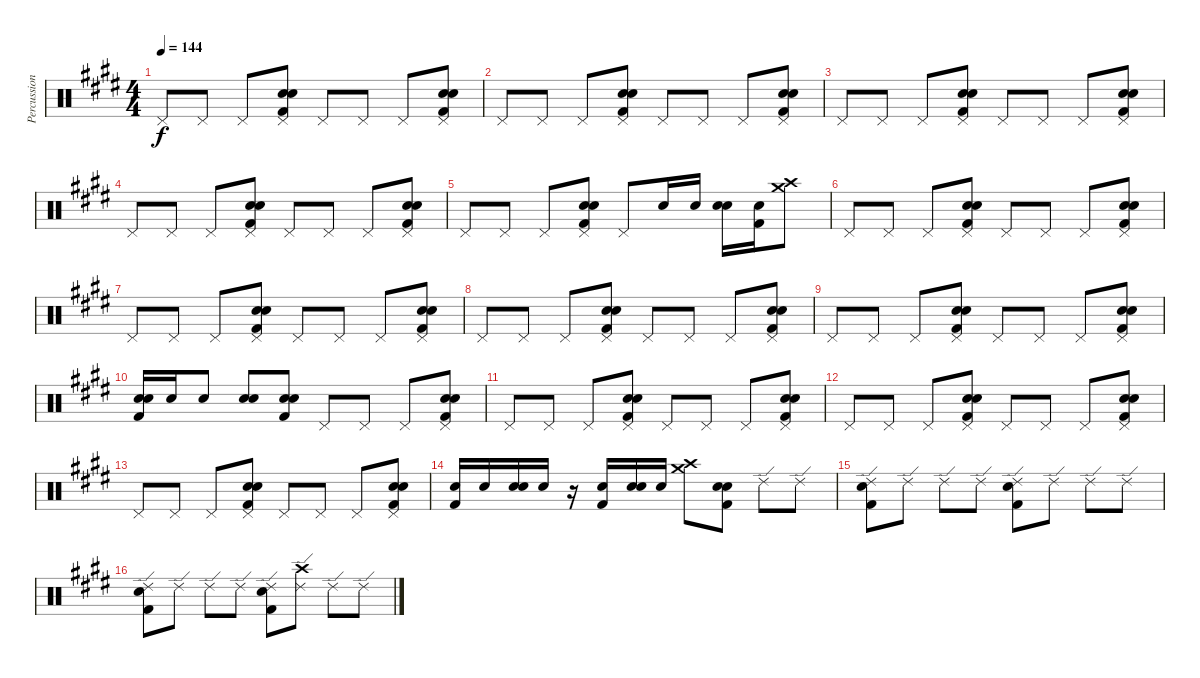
\track ("Percussion" "Percussion") {instrument percussion}
\staff {score}
\articulation defaults
\ts (4 4)
\tempo 144
\clef neutral
\ks c#minor "Pedal Hi-Hat (hit)".8{dy f} "Pedal Hi-Hat (hit)".8 "Pedal Hi-Hat (hit)".8
("Pedal Hi-Hat (hit)" "Snare (hit) 2" "Snare (hit) 2" "Kick (hit) 2").8 "Pedal Hi-Hat (hit)".8 "Pedal Hi-Hat (hit)".8 "Pedal Hi-Hat (hit)".8 ("Pedal Hi-Hat (hit)" "Snare (hit) 2" "Snare (hit) 2" "Kick (hit) 2").8 |
"Pedal Hi-Hat (hit)".8 "Pedal Hi-Hat (hit)".8 "Pedal Hi-Hat (hit)".8 ("Pedal Hi-Hat (hit)" "Snare (hit) 2" "Snare (hit) 2" "Kick (hit) 2").8 "Pedal Hi-Hat (hit)".8 "Pedal Hi-Hat (hit)".8 "Pedal Hi-Hat (hit)".8 ("Pedal Hi-Hat (hit)" "Snare (hit) 2" "Snare (hit) 2" "Kick (hit) 2").8 |
\ks e "Pedal Hi-Hat (hit)".8 "Pedal Hi-Hat (hit)".8 "Pedal Hi-Hat (hit)".8
("Pedal Hi-Hat (hit)" "Snare (hit) 2" "Snare (hit) 2" "Kick (hit) 2").8 "Pedal Hi-Hat (hit)".8 "Pedal Hi-Hat (hit)".8 "Pedal Hi-Hat (hit)".8 ("Pedal Hi-Hat (hit)" "Snare (hit) 2" "Snare (hit) 2" "Kick (hit) 2").8 |
\ks c#minor "Pedal Hi-Hat (hit)".8 "Pedal Hi-Hat (hit)".8 "Pedal Hi-Hat (hit)".8
("Pedal Hi-Hat (hit)" "Snare (hit) 2" "Snare (hit) 2" "Kick (hit) 2").8 "Pedal Hi-Hat (hit)".8 "Pedal Hi-Hat (hit)".8 "Pedal Hi-Hat (hit)".8 ("Pedal Hi-Hat (hit)" "Snare (hit) 2" "Snare (hit) 2" "Kick (hit) 2").8 |
"Pedal Hi-Hat (hit)".8 "Pedal Hi-Hat (hit)".8 "Pedal Hi-Hat (hit)".8 ("Pedal Hi-Hat (hit)" "Snare (hit) 2" "Snare (hit) 2" "Kick (hit) 2").8 "Pedal Hi-Hat (hit)".8 "Snare (hit) 2".16 "Snare (hit) 2".16 ("Snare (hit) 2" "Snare (hit) 2").16 ("Snare (hit) 2" "Kick (hit) 2").16 ("Crash medium (hit)" "Crash high (hit)").8 |
"Pedal Hi-Hat (hit)".8 "Pedal Hi-Hat (hit)".8 "Pedal Hi-Hat (hit)".8 ("Pedal Hi-Hat (hit)" "Snare (hit) 2" "Snare (hit) 2" "Kick (hit) 2").8 "Pedal Hi-Hat (hit)".8 "Pedal Hi-Hat (hit)".8 "Pedal Hi-Hat (hit)".8 ("Pedal Hi-Hat (hit)" "Snare (hit) 2" "Snare (hit) 2" "Kick (hit) 2").8 |
\ks e "Pedal Hi-Hat (hit)".8 "Pedal Hi-Hat (hit)".8 "Pedal Hi-Hat (hit)".8
("Pedal Hi-Hat (hit)" "Snare (hit) 2" "Snare (hit) 2" "Kick (hit) 2").8 "Pedal Hi-Hat (hit)".8 "Pedal Hi-Hat (hit)".8 "Pedal Hi-Hat (hit)".8 ("Pedal Hi-Hat (hit)" "Snare (hit) 2" "Snare (hit) 2" "Kick (hit) 2").8 |
\ks c#minor "Pedal Hi-Hat (hit)".8 "Pedal Hi-Hat (hit)".8 "Pedal Hi-Hat (hit)".8
("Pedal Hi-Hat (hit)" "Snare (hit) 2" "Snare (hit) 2" "Kick (hit) 2").8 "Pedal Hi-Hat (hit)".8 "Pedal Hi-Hat (hit)".8 "Pedal Hi-Hat (hit)".8 ("Pedal Hi-Hat (hit)" "Snare (hit) 2" "Snare (hit) 2" "Kick (hit) 2").8 |
"Pedal Hi-Hat (hit)".8 "Pedal Hi-Hat (hit)".8 "Pedal Hi-Hat (hit)".8 ("Pedal Hi-Hat (hit)" "Snare (hit) 2" "Snare (hit) 2" "Kick (hit) 2").8 "Pedal Hi-Hat (hit)".8 "Pedal Hi-Hat (hit)".8 "Pedal Hi-Hat (hit)".8 ("Pedal Hi-Hat (hit)" "Snare (hit) 2" "Snare (hit) 2" "Kick (hit) 2").8 |
("Snare (hit) 2" "Snare (hit) 2" "Kick (hit) 2").16 "Snare (hit) 2".16 "Snare (hit) 2".8 ("Snare (hit) 2" "Snare (hit) 2").8 ("Snare (hit) 2" "Snare (hit) 2" "Kick (hit) 2").8 "Pedal Hi-Hat (hit)".8 "Pedal Hi-Hat (hit)".8 "Pedal Hi-Hat (hit)".8 ("Pedal Hi-Hat (hit)" "Snare (hit) 2" "Snare (hit) 2" "Kick (hit) 2").8 |
\ks e "Pedal Hi-Hat (hit)".8 "Pedal Hi-Hat (hit)".8 "Pedal Hi-Hat (hit)".8
("Pedal Hi-Hat (hit)" "Snare (hit) 2" "Snare (hit) 2" "Kick (hit) 2").8 "Pedal Hi-Hat (hit)".8 "Pedal Hi-Hat (hit)".8 "Pedal Hi-Hat (hit)".8 ("Pedal Hi-Hat (hit)" "Snare (hit) 2" "Snare (hit) 2" "Kick (hit) 2").8 |
\ks c#minor "Pedal Hi-Hat (hit)".8 "Pedal Hi-Hat (hit)".8 "Pedal Hi-Hat (hit)".8
("Pedal Hi-Hat (hit)" "Snare (hit) 2" "Snare (hit) 2" "Kick (hit) 2").8 "Pedal Hi-Hat (hit)".8 "Pedal Hi-Hat (hit)".8 "Pedal Hi-Hat (hit)".8 ("Pedal Hi-Hat (hit)" "Snare (hit) 2" "Snare (hit) 2" "Kick (hit) 2").8 |
\ks e "Pedal Hi-Hat (hit)".8 "Pedal Hi-Hat (hit)".8 "Pedal Hi-Hat (hit)".8
("Pedal Hi-Hat (hit)" "Snare (hit) 2" "Snare (hit) 2" "Kick (hit) 2").8 "Pedal Hi-Hat (hit)".8 "Pedal Hi-Hat (hit)".8 "Pedal Hi-Hat (hit)".8 ("Pedal Hi-Hat (hit)" "Snare (hit) 2" "Snare (hit) 2" "Kick (hit) 2").8 |
\ks c#minor
("Snare (hit) 2" "Kick (hit) 2").16 "Snare (hit) 2".16 ("Snare (hit) 2" "Snare (hit) 2").16 "Snare (hit) 2".16 r.16 ("Snare (hit) 2" "Kick (hit) 2").16 ("Snare (hit) 2" "Snare (hit) 2").16 "Snare (hit) 2".16 ("Crash high (hit)" "Crash medium (hit)").8 ("Snare (hit) 2" "Snare (hit) 2" "Kick (hit) 2").8 "Ride (edge) 2".8 "Ride (edge) 2".8 |
\ks e
("Ride (edge) 2" "Snare (hit) 2" "Kick (hit) 2").8 "Ride (edge) 2".8 "Ride (edge) 2".8 "Ride (edge) 2".8 ("Ride (edge) 2" "Snare (hit) 2" "Kick (hit) 2").8 "Ride (edge) 2".8 "Ride (edge) 2".8 "Ride (edge) 2".8 |
\ks c#minor
("Ride (edge) 2" "Snare (hit) 2" "Kick (hit) 2").8 "Ride (edge) 2".8 "Ride (edge) 2".8 "Ride (edge) 2".8 ("Ride (edge) 2" "Snare (hit) 2" "Kick (hit) 2").8 ("Ride (edge) 2" "Crash high (hit)").8 "Ride (edge) 2".8 "Ride (edge) 2".8
